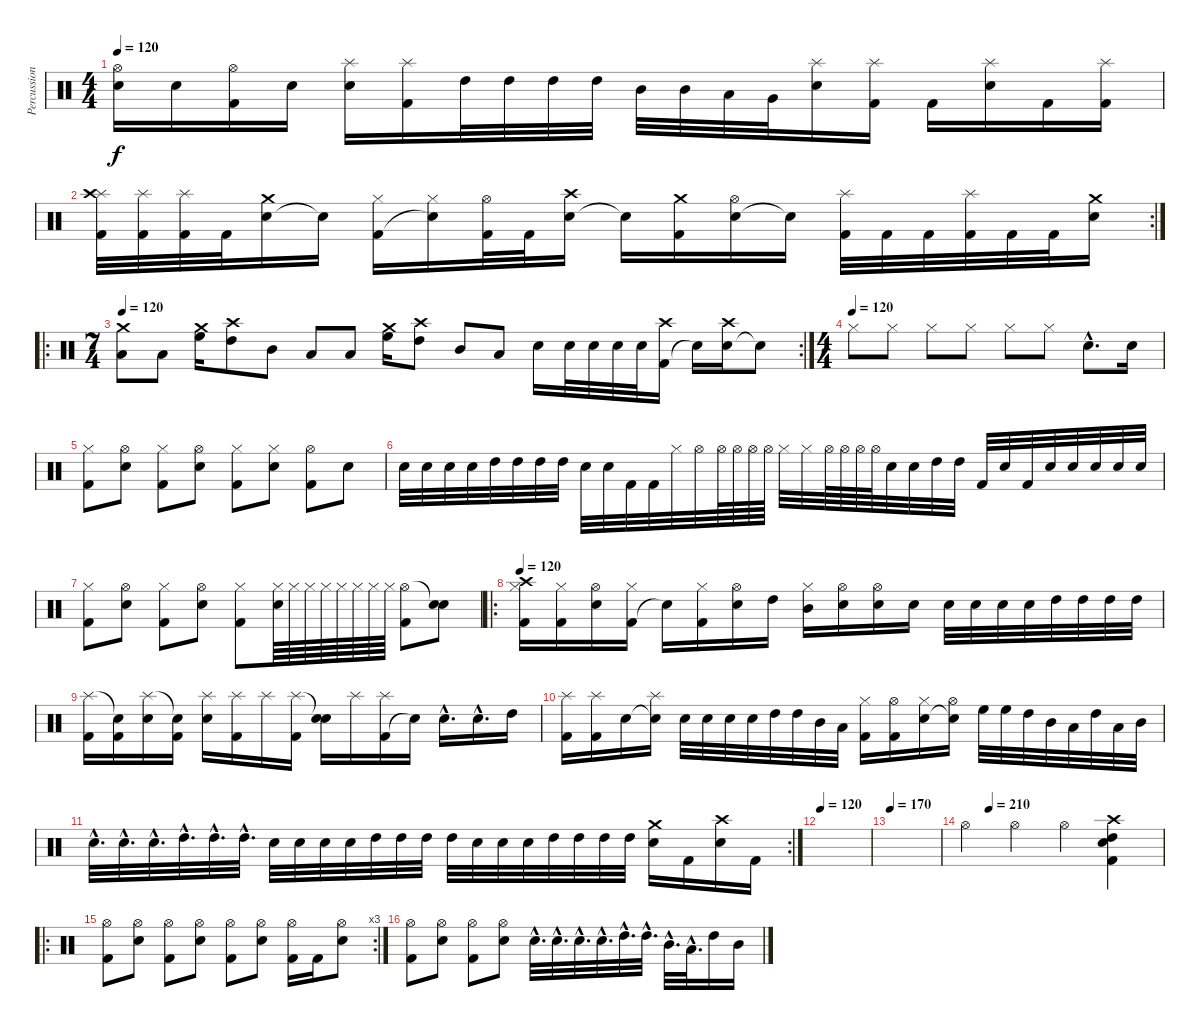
\track ("Percussion" "Percussion") {instrument percussion}
\staff {score}
\articulation defaults
\ts (4 4)
\tempo 120
\clef neutral
\ks c
("Electric Snare (hit)" "Hi-Hat (open)").16{dy f} "Electric Snare (hit)".16 ("Kick (hit) 2" "Hi-Hat (open)").16 "Electric Snare (hit)".16 ("Electric Snare (hit)" "Splash (hit)").16 ("Kick (hit) 2" "Splash (hit)").16 "High Tom (hit)".32 "High Tom (hit)".32 "High Tom (hit)".32 "High Tom (hit)".32 "Mid Tom (hit)".32 "Mid Tom (hit)".32 "Low Tom (hit)".32 "Very Low Tom (hit)".32 ("Electric Snare (hit)" "Splash (hit)").16 ("Kick (hit) 2" "Splash (hit)").16 "Kick (hit) 2".16 ("Electric Snare (hit)" "Splash (hit)").16 "Kick (hit) 2".16 ("Kick (hit) 2" "Splash (hit)").16 |
\rc 2
("Kick (hit) 2" "Splash (hit)" "Crash high (hit)").32 ("Kick (hit) 2" "Splash (hit)").32 ("Kick (hit) 2" "Splash (hit)").32 "Kick (hit) 2".32 ("Electric Snare (hit)" "Crash medium (hit)").16 "Snare (hit)"{t}.16 ("Kick (hit) 2" "Hi-Hat (closed)").16 ("Snare (hit)"{t} "Hi-Hat (closed)").16 ("Kick (hit) 2" "Hi-Hat (open)").32 "Kick (hit) 2".32 ("Electric Snare (hit)" "Crash high (hit)").16 "Snare (hit)"{t}.16 ("Kick (hit) 2" "Crash medium (hit)").16 ("Electric Snare (hit)" "Hi-Hat (open)").16 "Snare (hit)"{t}.16 ("Kick (hit) 2" "Splash (hit)").32 "Kick (hit) 2".32 "Kick (hit) 2".32 ("Kick (hit) 2" "Splash (hit)").32 "Kick (hit) 2".32 "Kick (hit) 2".32 ("Electric Snare (hit)" "Crash medium (hit)").16 |
\ro
\rc 2
\ts (7 4)
\tempo 120
("Low Tom (hit)" "Crash medium (hit)").8 "Low Tom (hit)".8 ("High Floor Tom (hit)" "Crash medium (hit)").16 ("High Tom (hit)" "Crash high (hit)").8 "Mid Tom (hit)".8 "Low Tom (hit)".8 "Low Tom (hit)".8 ("High Floor Tom (hit)" "Crash medium (hit)").16 ("High Tom (hit)" "Crash high (hit)").8 "Mid Tom (hit)".8 "Low Tom (hit)".8 "Electric Snare (hit)".16 "Electric Snare (hit)".32 "Electric Snare (hit)".32 "Electric Snare (hit)".32 "Electric Snare (hit)".32 ("Kick (hit) 2" "Crash high (hit)").16 "Electric Snare (hit)"{t}.16 ("Electric Snare (hit)" "Crash high (hit)").16 "Snare (hit)"{t}.8 |
\ts (4 4)
\tempo (120)
"Hi-Hat (closed)".8 "Hi-Hat (closed)".8 "Hi-Hat (closed)".8 "Hi-Hat (closed)".8 "Hi-Hat (closed)".8 "Hi-Hat (closed)".8 "Electric Snare (hit)"{hac}.8{d} "Electric Snare (hit)".16 |
("Kick (hit) 2" "Hi-Hat (closed)").8 ("Electric Snare (hit)" "Hi-Hat (open)").8 ("Kick (hit) 2" "Hi-Hat (closed)").8 ("Electric Snare (hit)" "Hi-Hat (open)").8 ("Kick (hit) 2" "Hi-Hat (closed)").8 ("Electric Snare (hit)" "Hi-Hat (closed)").8 ("Kick (hit) 2" "Hi-Hat (open)").8 "Electric Snare (hit)".8 |
"Electric Snare (hit)".32 "Electric Snare (hit)".32 "Electric Snare (hit)".32 "Electric Snare (hit)".32 "High Tom (hit)".32 "High Tom (hit)".32 "High Tom (hit)".32 "High Tom (hit)".32 "Electric Snare (hit)".32 "Electric Snare (hit)".32 "Kick (hit) 2".32 "Kick (hit) 2".32 "Hi-Hat (closed)".32 "Hi-Hat (open)".32 "Hi-Hat (open)".64 "Hi-Hat (open)".64 "Hi-Hat (open)".64 "Hi-Hat (open)".64 "Hi-Hat (closed)".32 "Hi-Hat (closed)".32 "Hi-Hat (open)".64 "Hi-Hat (open)".64 "Hi-Hat (open)".64 "Hi-Hat (open)".64 "Electric Snare (hit)".32 "Electric Snare (hit)".32 "High Tom (hit)".32 "High Tom (hit)".32 "Kick (hit) 2".32 "Electric Snare (hit)".32 "Kick (hit) 2".32 "Electric Snare (hit)".32 "Electric Snare (hit)".32 "Electric Snare (hit)".32 "Electric Snare (hit)".32 "Electric Snare (hit)".32 |
("Kick (hit) 2" "Hi-Hat (closed)").8 ("Electric Snare (hit)" "Hi-Hat (open)").8 ("Kick (hit) 2" "Hi-Hat (closed)").8 ("Electric Snare (hit)" "Hi-Hat (open)").8 ("Kick (hit) 2" "Hi-Hat (closed)").8 ("Electric Snare (hit)" "Hi-Hat (closed)").64 "Hi-Hat (closed)".64 "Hi-Hat (closed)".64 "Hi-Hat (closed)".64 "Hi-Hat (closed)".64 "Hi-Hat (closed)".64 "Hi-Hat (closed)".64 "Hi-Hat (closed)".64 ("Kick (hit) 2" "Hi-Hat (open)").8 ("Electric Snare (hit)" "Snare (hit)"{t}).8 |
\ro
\tempo 120
("Kick (hit) 2" "Hi-Hat (closed)" "Crash high (hit)").16 ("Kick (hit) 2" "Hi-Hat (closed)").16 ("Electric Snare (hit)" "Hi-Hat (open)").16 ("Kick (hit) 2" "Hi-Hat (closed)").16 "Snare (hit)"{t}.16 ("Kick (hit) 2" "Hi-Hat (closed)").16 ("Electric Snare (hit)" "Hi-Hat (open)").16 "High Tom (hit)".16 ("Mid Tom (hit)" "Hi-Hat (closed)").16 ("Electric Snare (hit)" "Hi-Hat (open)").16 ("Electric Snare (hit)" "Hi-Hat (open)").16 "Electric Snare (hit)".16 "Electric Snare (hit)".32 "Electric Snare (hit)".32 "Electric Snare (hit)".32 "Electric Snare (hit)".32 "High Tom (hit)".32 "High Tom (hit)".32 "High Tom (hit)".32 "High Tom (hit)".32 |
("Kick (hit) 2" "Splash (hit)").16 ("Kick (hit) 2" "Snare (hit)"{t}).16 ("Electric Snare (hit)" "Splash (hit)").16 ("Kick (hit) 2" "Snare (hit)"{t}).16 ("Electric Snare (hit)" "Splash (hit)").16 ("Kick (hit) 2" "Splash (hit)").16 "Splash (hit)".16 ("Kick (hit) 2" "Splash (hit)").16 ("Electric Snare (hit)" "Snare (hit)"{t}).16 "Splash (hit)".16 ("Kick (hit) 2" "Splash (hit)").16 "Snare (hit)"{t}.16 "Electric Snare (hit)"{hac}.16{d} "Electric Snare (hit)"{hac}.16{d} "High Tom (hit)".16 |
("Kick (hit) 2" "Splash (hit)").16 ("Kick (hit) 2" "Splash (hit)").16 "Electric Snare (hit)".16 ("Snare (hit)"{t} "Splash (hit)").16 "Electric Snare (hit)".32 "Electric Snare (hit)".32 "Electric Snare (hit)".32 "Electric Snare (hit)".32 "High Tom (hit)".32 "High Tom (hit)".32 "Mid Tom (hit)".32 "Low Tom (hit)".32 ("Kick (hit) 2" "Hi-Hat (closed)").16 ("Kick (hit) 2" "Hi-Hat (open)").16 ("Electric Snare (hit)" "Hi-Hat (closed)").16 ("Snare (hit)"{t} "Hi-Hat (open)").16 "High Floor Tom (hit)".32 "High Floor Tom (hit)".32 "High Tom (hit)".32 "Mid Tom (hit)".32 "Low Tom (hit)".32 "High Tom (hit)".32 "Low Tom (hit)".32 "Mid Tom (hit)".32 |
\rc 2 "Electric Snare (hit)"{hac}.32{d} "Electric Snare (hit)"{hac}.32{d} "Electric Snare (hit)"{hac}.32{d} "High Tom (hit)"{hac}.32{d} "High Tom (hit)"{hac}.32{d} "High Tom (hit)"{hac}.32{d} "Electric Snare (hit)".32 "Electric Snare (hit)".32 "Electric Snare (hit)".32 "Electric Snare (hit)".32 "High Tom (hit)".32 "High Tom (hit)".32 "High Tom (hit)".32 "High Tom (hit)".32 "Electric Snare (hit)".32 "Electric Snare (hit)".32 "Electric Snare (hit)".32 "High Tom (hit)".32 "High Tom (hit)".32 "High Tom (hit)".32 "High Tom (hit)".32
("Electric Snare (hit)" "Crash medium (hit)").16 "Kick (hit) 2".16 ("Electric Snare (hit)" "Crash high (hit)").16 "Kick (hit) 2".16 |
\tempo 120
|
\tempo 170
|
\tempo (210 0.125)
"Hi-Hat (open)".4 "Hi-Hat (open)".4 "Hi-Hat (open)".4 ("Electric Snare (hit)" "Kick (hit) 2" "High Tom (hit)" "Crash high (hit)").4 |
\ro
\rc 3
("Kick (hit) 2" "Hi-Hat (open)").8 ("Electric Snare (hit)" "Hi-Hat (open)").8 ("Kick (hit) 2" "Hi-Hat (open)").8 ("Electric Snare (hit)" "Hi-Hat (open)").8 ("Kick (hit) 2" "Hi-Hat (open)").8 ("Electric Snare (hit)" "Hi-Hat (open)").8 ("Kick (hit) 2" "Hi-Hat (open)").16 "Kick (hit) 2".16 ("Electric Snare (hit)" "Hi-Hat (open)").8 |
("Kick (hit) 2" "Hi-Hat (open)").8 ("Electric Snare (hit)" "Hi-Hat (open)").8 ("Kick (hit) 2" "Hi-Hat (open)").8 ("Electric Snare (hit)" "Hi-Hat (open)").8 "Electric Snare (hit)"{hac}.32{d} "Electric Snare (hit)"{hac}.32{d} "Electric Snare (hit)"{hac}.32{d} "Electric Snare (hit)"{hac}.32{d} "High Tom (hit)"{hac}.32{d} "High Tom (hit)"{hac}.32{d} "Mid Tom (hit)"{hac}.32{d} "Low Tom (hit)"{hac}.32{d} "High Tom (hit)".16 "Mid Tom (hit)".16
